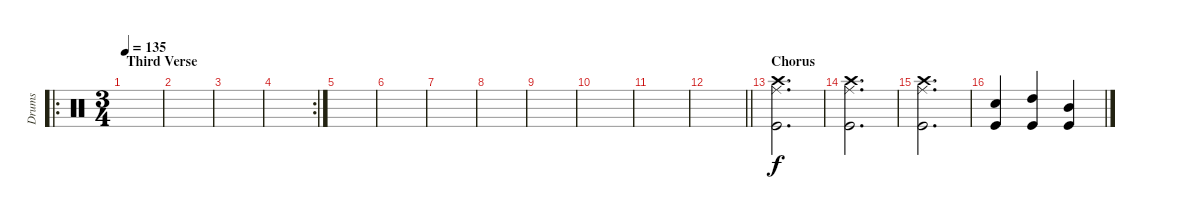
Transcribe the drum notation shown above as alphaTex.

\track ("Drums" "Drums") {instrument percussion}
\staff {score}
\articulation defaults
\ro
\ts (3 4)
\section ("" "Third Verse")
\tempo 135
\clef neutral
\ks c
|
|
|
\rc 2
|
|
|
|
|
|
|
|
\barLineRight lightlight
|
\section ("" "Chorus")
("Ride (middle)" "Crash high (hit)" "Kick (hit)").2{d} |
("Ride (middle)" "Crash high (hit)" "Kick (hit)").2{d} |
("Ride (middle)" "Crash high (hit)" "Kick (hit)").2{d} |
("Electric Snare (hit)" "Kick (hit)").4 ("High Tom (hit)" "Kick (hit)").4 ("Mid Tom (hit)" "Kick (hit)").4
